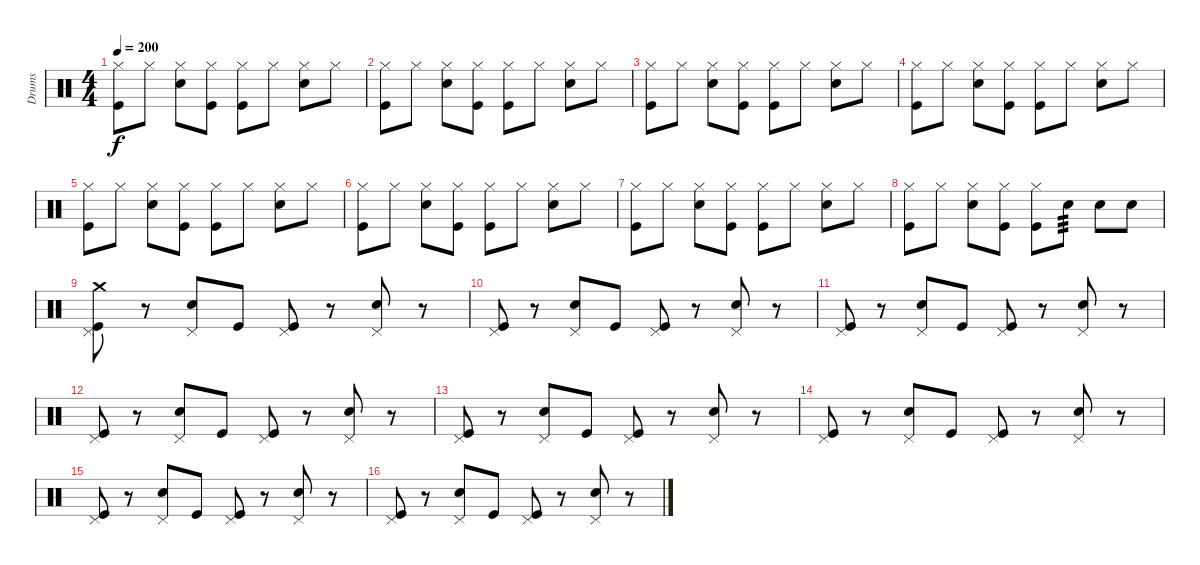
\track ("Drums" "Drums") {instrument percussion}
\staff {score}
\articulation defaults
\ts (4 4)
\tempo 200
\clef neutral
\ks c
("Hi-Hat (closed)" "Kick (hit)").8{dy f} "Hi-Hat (closed)".8 ("Hi-Hat (closed)" "Snare (hit) 2").8 ("Hi-Hat (closed)" "Kick (hit)").8 ("Hi-Hat (closed)" "Kick (hit)").8 "Hi-Hat (closed)".8 ("Hi-Hat (closed)" "Snare (hit) 2").8 "Hi-Hat (closed)".8 |
("Hi-Hat (closed)" "Kick (hit)").8 "Hi-Hat (closed)".8 ("Hi-Hat (closed)" "Snare (hit) 2").8 ("Hi-Hat (closed)" "Kick (hit)").8 ("Hi-Hat (closed)" "Kick (hit)").8 "Hi-Hat (closed)".8 ("Hi-Hat (closed)" "Snare (hit) 2").8 "Hi-Hat (closed)".8 |
("Hi-Hat (closed)" "Kick (hit)").8 "Hi-Hat (closed)".8 ("Hi-Hat (closed)" "Snare (hit) 2").8 ("Hi-Hat (closed)" "Kick (hit)").8 ("Hi-Hat (closed)" "Kick (hit)").8 "Hi-Hat (closed)".8 ("Hi-Hat (closed)" "Snare (hit) 2").8 "Hi-Hat (closed)".8 |
("Hi-Hat (closed)" "Kick (hit)").8 "Hi-Hat (closed)".8 ("Hi-Hat (closed)" "Snare (hit) 2").8 ("Hi-Hat (closed)" "Kick (hit)").8 ("Hi-Hat (closed)" "Kick (hit)").8 "Hi-Hat (closed)".8 ("Hi-Hat (closed)" "Snare (hit) 2").8 "Hi-Hat (closed)".8 |
("Hi-Hat (closed)" "Kick (hit)").8 "Hi-Hat (closed)".8 ("Hi-Hat (closed)" "Snare (hit) 2").8 ("Hi-Hat (closed)" "Kick (hit)").8 ("Hi-Hat (closed)" "Kick (hit)").8 "Hi-Hat (closed)".8 ("Hi-Hat (closed)" "Snare (hit) 2").8 "Hi-Hat (closed)".8 |
("Hi-Hat (closed)" "Kick (hit)").8 "Hi-Hat (closed)".8 ("Hi-Hat (closed)" "Snare (hit) 2").8 ("Hi-Hat (closed)" "Kick (hit)").8 ("Hi-Hat (closed)" "Kick (hit)").8 "Hi-Hat (closed)".8 ("Hi-Hat (closed)" "Snare (hit) 2").8 "Hi-Hat (closed)".8 |
("Hi-Hat (closed)" "Kick (hit)").8 "Hi-Hat (closed)".8 ("Hi-Hat (closed)" "Snare (hit) 2").8 ("Hi-Hat (closed)" "Kick (hit)").8 ("Hi-Hat (closed)" "Kick (hit)").8 "Hi-Hat (closed)".8 ("Hi-Hat (closed)" "Snare (hit) 2").8 "Hi-Hat (closed)".8 |
("Hi-Hat (closed)" "Kick (hit)").8 "Hi-Hat (closed)".8 ("Hi-Hat (closed)" "Snare (hit) 2").8 ("Hi-Hat (closed)" "Kick (hit)").8 ("Hi-Hat (closed)" "Kick (hit)").8 "Snare (hit) 2".8{tp 3} "Snare (hit) 2".8 "Snare (hit) 2".8 |
("Pedal Hi-Hat (hit)" "Crash medium (hit)" "Kick (hit)").8 r.8 ("Pedal Hi-Hat (hit)" "Snare (hit) 2").8 "Kick (hit)".8 ("Pedal Hi-Hat (hit)" "Kick (hit)").8 r.8 ("Pedal Hi-Hat (hit)" "Snare (hit) 2").8 r.8 |
("Pedal Hi-Hat (hit)" "Kick (hit)").8 r.8 ("Pedal Hi-Hat (hit)" "Snare (hit) 2").8 "Kick (hit)".8 ("Pedal Hi-Hat (hit)" "Kick (hit)").8 r.8 ("Pedal Hi-Hat (hit)" "Snare (hit) 2").8 r.8 |
("Pedal Hi-Hat (hit)" "Kick (hit)").8 r.8 ("Pedal Hi-Hat (hit)" "Snare (hit) 2").8 "Kick (hit)".8 ("Pedal Hi-Hat (hit)" "Kick (hit)").8 r.8 ("Pedal Hi-Hat (hit)" "Snare (hit) 2").8 r.8 |
("Pedal Hi-Hat (hit)" "Kick (hit)").8 r.8 ("Pedal Hi-Hat (hit)" "Snare (hit) 2").8 "Kick (hit)".8 ("Pedal Hi-Hat (hit)" "Kick (hit)").8 r.8 ("Pedal Hi-Hat (hit)" "Snare (hit) 2").8 r.8 |
("Pedal Hi-Hat (hit)" "Kick (hit)").8 r.8 ("Pedal Hi-Hat (hit)" "Snare (hit) 2").8 "Kick (hit)".8 ("Pedal Hi-Hat (hit)" "Kick (hit)").8 r.8 ("Pedal Hi-Hat (hit)" "Snare (hit) 2").8 r.8 |
("Pedal Hi-Hat (hit)" "Kick (hit)").8 r.8 ("Pedal Hi-Hat (hit)" "Snare (hit) 2").8 "Kick (hit)".8 ("Pedal Hi-Hat (hit)" "Kick (hit)").8 r.8 ("Pedal Hi-Hat (hit)" "Snare (hit) 2").8 r.8 |
("Pedal Hi-Hat (hit)" "Kick (hit)").8 r.8 ("Pedal Hi-Hat (hit)" "Snare (hit) 2").8 "Kick (hit)".8 ("Pedal Hi-Hat (hit)" "Kick (hit)").8 r.8 ("Pedal Hi-Hat (hit)" "Snare (hit) 2").8 r.8 |
("Pedal Hi-Hat (hit)" "Kick (hit)").8 r.8 ("Pedal Hi-Hat (hit)" "Snare (hit) 2").8 "Kick (hit)".8 ("Pedal Hi-Hat (hit)" "Kick (hit)").8 r.8 ("Pedal Hi-Hat (hit)" "Snare (hit) 2").8 r.8
